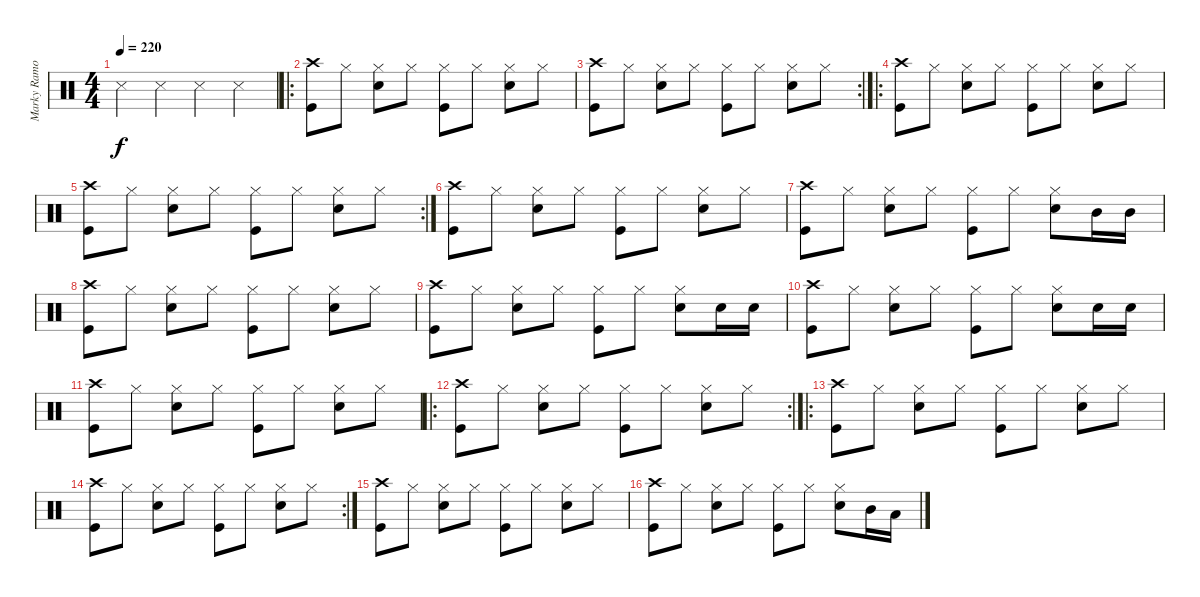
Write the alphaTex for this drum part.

\track ("Marky Ramone - Drums" "Marky Ramo") {instrument percussion}
\staff {score}
\articulation defaults
\ts (4 4)
\tempo 220
\clef neutral
\ks c "Snare (side stick) 3".4{dy f} "Snare (side stick) 3".4 "Snare (side stick) 3".4 "Snare (side stick) 3".4
|
\ro
("Crash high (hit)" "Kick (hit)").8 "Hi-Hat (closed)".8 ("Hi-Hat (closed)" "Electric Snare (hit)").8 "Hi-Hat (closed)".8 ("Hi-Hat (closed)" "Kick (hit)").8 "Hi-Hat (closed)".8 ("Hi-Hat (closed)" "Electric Snare (hit)").8 "Hi-Hat (closed)".8 |
\rc 2
("Crash high (hit)" "Kick (hit)").8 "Hi-Hat (closed)".8 ("Hi-Hat (closed)" "Electric Snare (hit)").8 "Hi-Hat (closed)".8 ("Hi-Hat (closed)" "Kick (hit)").8 "Hi-Hat (closed)".8 ("Hi-Hat (closed)" "Electric Snare (hit)").8 "Hi-Hat (closed)".8 |
\ro
("Crash high (hit)" "Kick (hit)").8 "Hi-Hat (closed)".8 ("Hi-Hat (closed)" "Electric Snare (hit)").8 "Hi-Hat (closed)".8 ("Hi-Hat (closed)" "Kick (hit)").8 "Hi-Hat (closed)".8 ("Hi-Hat (closed)" "Electric Snare (hit)").8 "Hi-Hat (closed)".8 |
\rc 2
("Crash high (hit)" "Kick (hit)").8 "Hi-Hat (closed)".8 ("Hi-Hat (closed)" "Electric Snare (hit)").8 "Hi-Hat (closed)".8 ("Hi-Hat (closed)" "Kick (hit)").8 "Hi-Hat (closed)".8 ("Hi-Hat (closed)" "Electric Snare (hit)").8 "Hi-Hat (closed)".8 |
("Crash high (hit)" "Kick (hit)").8 "Hi-Hat (closed)".8 ("Hi-Hat (closed)" "Electric Snare (hit)").8 "Hi-Hat (closed)".8 ("Hi-Hat (closed)" "Kick (hit)").8 "Hi-Hat (closed)".8 ("Hi-Hat (closed)" "Electric Snare (hit)").8 "Hi-Hat (closed)".8 |
("Crash high (hit)" "Kick (hit)").8 "Hi-Hat (closed)".8 ("Hi-Hat (closed)" "Electric Snare (hit)").8 "Hi-Hat (closed)".8 ("Hi-Hat (closed)" "Kick (hit)").8 "Hi-Hat (closed)".8 ("Hi-Hat (closed)" "Electric Snare (hit)").8 "Mid Tom (hit)".16 "Mid Tom (hit)".16 |
("Crash high (hit)" "Kick (hit)").8 "Hi-Hat (closed)".8 ("Hi-Hat (closed)" "Electric Snare (hit)").8 "Hi-Hat (closed)".8 ("Hi-Hat (closed)" "Kick (hit)").8 "Hi-Hat (closed)".8 ("Hi-Hat (closed)" "Electric Snare (hit)").8 "Hi-Hat (closed)".8 |
("Crash high (hit)" "Kick (hit)").8 "Hi-Hat (closed)".8 ("Hi-Hat (closed)" "Electric Snare (hit)").8 "Hi-Hat (closed)".8 ("Hi-Hat (closed)" "Kick (hit)").8 "Hi-Hat (closed)".8 ("Hi-Hat (closed)" "Electric Snare (hit)").8 "Electric Snare (hit)".16 "Electric Snare (hit)".16 |
("Crash high (hit)" "Kick (hit)").8 "Hi-Hat (closed)".8 ("Hi-Hat (closed)" "Electric Snare (hit)").8 "Hi-Hat (closed)".8 ("Hi-Hat (closed)" "Kick (hit)").8 "Hi-Hat (closed)".8 ("Hi-Hat (closed)" "Electric Snare (hit)").8 "Electric Snare (hit)".16 "Electric Snare (hit)".16 |
("Crash high (hit)" "Kick (hit)").8 "Hi-Hat (closed)".8 ("Hi-Hat (closed)" "Electric Snare (hit)").8 "Hi-Hat (closed)".8 ("Hi-Hat (closed)" "Kick (hit)").8 "Hi-Hat (closed)".8 ("Hi-Hat (closed)" "Electric Snare (hit)").8 "Hi-Hat (closed)".8 |
\ro
\rc 2
("Crash high (hit)" "Kick (hit)").8 "Hi-Hat (closed)".8 ("Hi-Hat (closed)" "Electric Snare (hit)").8 "Hi-Hat (closed)".8 ("Hi-Hat (closed)" "Kick (hit)").8 "Hi-Hat (closed)".8 ("Hi-Hat (closed)" "Electric Snare (hit)").8 "Hi-Hat (closed)".8 |
\ro
("Crash high (hit)" "Kick (hit)").8 "Hi-Hat (closed)".8 ("Hi-Hat (closed)" "Electric Snare (hit)").8 "Hi-Hat (closed)".8 ("Hi-Hat (closed)" "Kick (hit)").8 "Hi-Hat (closed)".8 ("Hi-Hat (closed)" "Electric Snare (hit)").8 "Hi-Hat (closed)".8 |
\rc 2
("Crash high (hit)" "Kick (hit)").8 "Hi-Hat (closed)".8 ("Hi-Hat (closed)" "Electric Snare (hit)").8 "Hi-Hat (closed)".8 ("Hi-Hat (closed)" "Kick (hit)").8 "Hi-Hat (closed)".8 ("Hi-Hat (closed)" "Electric Snare (hit)").8 "Hi-Hat (closed)".8 |
("Crash high (hit)" "Kick (hit)").8 "Hi-Hat (closed)".8 ("Hi-Hat (closed)" "Electric Snare (hit)").8 "Hi-Hat (closed)".8 ("Hi-Hat (closed)" "Kick (hit)").8 "Hi-Hat (closed)".8 ("Hi-Hat (closed)" "Electric Snare (hit)").8 "Hi-Hat (closed)".8 |
("Crash high (hit)" "Kick (hit)").8 "Hi-Hat (closed)".8 ("Hi-Hat (closed)" "Electric Snare (hit)").8 "Hi-Hat (closed)".8 ("Hi-Hat (closed)" "Kick (hit)").8 "Hi-Hat (closed)".8 ("Hi-Hat (closed)" "Electric Snare (hit)").8 "Mid Tom (hit)".16 "Low Tom (hit)".16
